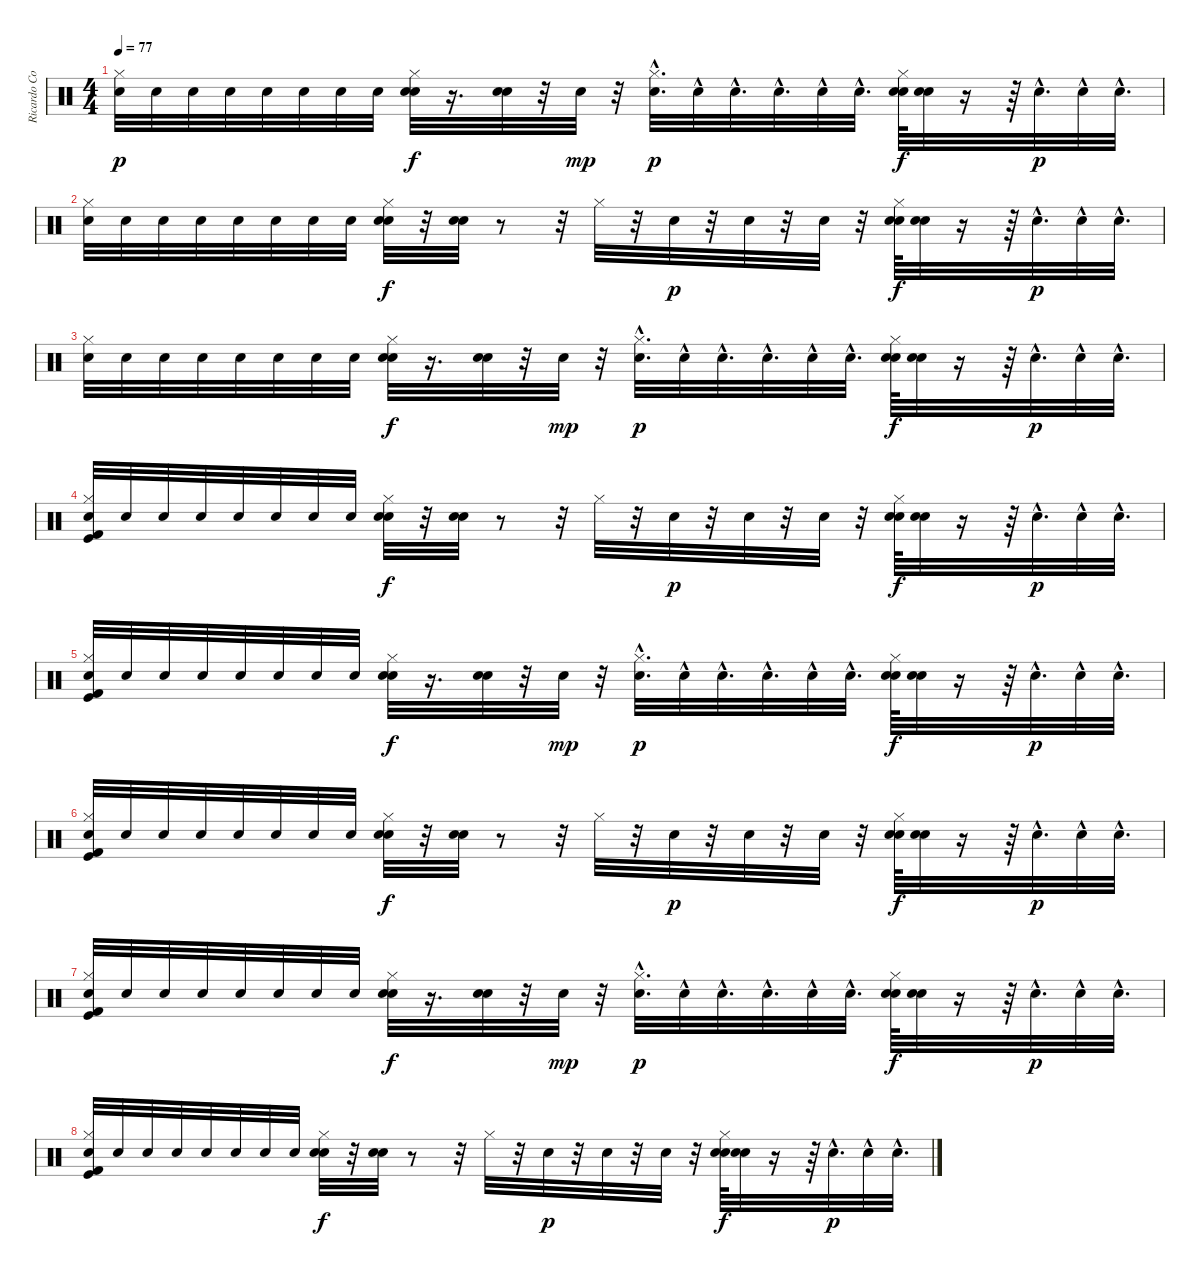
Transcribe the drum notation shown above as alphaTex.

\track ("Ricardo Confessori" "Ricardo Co") {instrument percussion}
\staff {score}
\articulation defaults
\ts (4 4)
\tempo 77
\clef neutral
\ks c
("Electric Snare (hit)" "Hi-Hat (closed)").32{dy p} "Electric Snare (hit)".32 "Electric Snare (hit)".32 "Electric Snare (hit)".32 "Electric Snare (hit)".32 "Electric Snare (hit)".32 "Electric Snare (hit)".32 "Electric Snare (hit)".32 ("Snare (hit) 2" "Electric Snare (hit)" "Hi-Hat (closed)").32{dy f} r.16{d} ("Snare (hit) 2" "Electric Snare (hit)").32 r.32 "Electric Snare (hit)".32{dy mp} r.32 ("Electric Snare (hit)"{hac} "Hi-Hat (closed)").32{d dy p} "Electric Snare (hit)"{hac}.32 "Electric Snare (hit)"{hac}.32{d} "Electric Snare (hit)"{hac}.32{d} "Electric Snare (hit)"{hac}.32 "Electric Snare (hit)"{hac}.32{d} ("Snare (hit) 2" "Electric Snare (hit)" "Hi-Hat (closed)").64{dy f} ("Snare (hit) 2" "Electric Snare (hit)").32 r.16 r.64 "Electric Snare (hit)"{hac}.32{d dy p} "Electric Snare (hit)"{hac}.32 "Electric Snare (hit)"{hac}.32{d} |
("Electric Snare (hit)" "Hi-Hat (closed)").32 "Electric Snare (hit)".32 "Electric Snare (hit)".32 "Electric Snare (hit)".32 "Electric Snare (hit)".32 "Electric Snare (hit)".32 "Electric Snare (hit)".32 "Electric Snare (hit)".32 ("Snare (hit) 2" "Electric Snare (hit)" "Hi-Hat (closed)").32{dy f} r.32 ("Snare (hit) 2" "Electric Snare (hit)").32 r.8 r.32 "Hi-Hat (closed)".32 r.32 "Electric Snare (hit)".32{dy p} r.32 "Electric Snare (hit)".32 r.32 "Electric Snare (hit)".32 r.32 ("Snare (hit) 2" "Electric Snare (hit)" "Hi-Hat (closed)").64{dy f} ("Snare (hit) 2" "Electric Snare (hit)").32 r.16 r.64 "Electric Snare (hit)"{hac}.32{d dy p} "Electric Snare (hit)"{hac}.32 "Electric Snare (hit)"{hac}.32{d} |
("Electric Snare (hit)" "Hi-Hat (closed)").32 "Electric Snare (hit)".32 "Electric Snare (hit)".32 "Electric Snare (hit)".32 "Electric Snare (hit)".32 "Electric Snare (hit)".32 "Electric Snare (hit)".32 "Electric Snare (hit)".32 ("Snare (hit) 2" "Electric Snare (hit)" "Hi-Hat (closed)").32{dy f} r.16{d} ("Snare (hit) 2" "Electric Snare (hit)").32 r.32 "Electric Snare (hit)".32{dy mp} r.32 ("Electric Snare (hit)"{hac} "Hi-Hat (closed)").32{d dy p} "Electric Snare (hit)"{hac}.32 "Electric Snare (hit)"{hac}.32{d} "Electric Snare (hit)"{hac}.32{d} "Electric Snare (hit)"{hac}.32 "Electric Snare (hit)"{hac}.32{d} ("Snare (hit) 2" "Electric Snare (hit)" "Hi-Hat (closed)").64{dy f} ("Snare (hit) 2" "Electric Snare (hit)").32 r.16 r.64 "Electric Snare (hit)"{hac}.32{d dy p} "Electric Snare (hit)"{hac}.32 "Electric Snare (hit)"{hac}.32{d} |
("Kick (hit) 2" "Kick (hit)" "Electric Snare (hit)" "Hi-Hat (closed)").32 "Electric Snare (hit)".32 "Electric Snare (hit)".32 "Electric Snare (hit)".32 "Electric Snare (hit)".32 "Electric Snare (hit)".32 "Electric Snare (hit)".32 "Electric Snare (hit)".32 ("Snare (hit) 2" "Electric Snare (hit)" "Hi-Hat (closed)").32{dy f} r.32 ("Snare (hit) 2" "Electric Snare (hit)").32 r.8 r.32 "Hi-Hat (closed)".32 r.32 "Electric Snare (hit)".32{dy p} r.32 "Electric Snare (hit)".32 r.32 "Electric Snare (hit)".32 r.32 ("Snare (hit) 2" "Electric Snare (hit)" "Hi-Hat (closed)").64{dy f} ("Snare (hit) 2" "Electric Snare (hit)").32 r.16 r.64 "Electric Snare (hit)"{hac}.32{d dy p} "Electric Snare (hit)"{hac}.32 "Electric Snare (hit)"{hac}.32{d} |
("Kick (hit) 2" "Kick (hit)" "Electric Snare (hit)" "Hi-Hat (closed)").32 "Electric Snare (hit)".32 "Electric Snare (hit)".32 "Electric Snare (hit)".32 "Electric Snare (hit)".32 "Electric Snare (hit)".32 "Electric Snare (hit)".32 "Electric Snare (hit)".32 ("Snare (hit) 2" "Electric Snare (hit)" "Hi-Hat (closed)").32{dy f} r.16{d} ("Snare (hit) 2" "Electric Snare (hit)").32 r.32 "Electric Snare (hit)".32{dy mp} r.32 ("Electric Snare (hit)"{hac} "Hi-Hat (closed)").32{d dy p} "Electric Snare (hit)"{hac}.32 "Electric Snare (hit)"{hac}.32{d} "Electric Snare (hit)"{hac}.32{d} "Electric Snare (hit)"{hac}.32 "Electric Snare (hit)"{hac}.32{d} ("Snare (hit) 2" "Electric Snare (hit)" "Hi-Hat (closed)").64{dy f} ("Snare (hit) 2" "Electric Snare (hit)").32 r.16 r.64 "Electric Snare (hit)"{hac}.32{d dy p} "Electric Snare (hit)"{hac}.32 "Electric Snare (hit)"{hac}.32{d} |
("Kick (hit) 2" "Kick (hit)" "Electric Snare (hit)" "Hi-Hat (closed)").32 "Electric Snare (hit)".32 "Electric Snare (hit)".32 "Electric Snare (hit)".32 "Electric Snare (hit)".32 "Electric Snare (hit)".32 "Electric Snare (hit)".32 "Electric Snare (hit)".32 ("Snare (hit) 2" "Electric Snare (hit)" "Hi-Hat (closed)").32{dy f} r.32 ("Snare (hit) 2" "Electric Snare (hit)").32 r.8 r.32 "Hi-Hat (closed)".32 r.32 "Electric Snare (hit)".32{dy p} r.32 "Electric Snare (hit)".32 r.32 "Electric Snare (hit)".32 r.32 ("Snare (hit) 2" "Electric Snare (hit)" "Hi-Hat (closed)").64{dy f} ("Snare (hit) 2" "Electric Snare (hit)").32 r.16 r.64 "Electric Snare (hit)"{hac}.32{d dy p} "Electric Snare (hit)"{hac}.32 "Electric Snare (hit)"{hac}.32{d} |
("Kick (hit) 2" "Kick (hit)" "Electric Snare (hit)" "Hi-Hat (closed)").32 "Electric Snare (hit)".32 "Electric Snare (hit)".32 "Electric Snare (hit)".32 "Electric Snare (hit)".32 "Electric Snare (hit)".32 "Electric Snare (hit)".32 "Electric Snare (hit)".32 ("Snare (hit) 2" "Electric Snare (hit)" "Hi-Hat (closed)").32{dy f} r.16{d} ("Snare (hit) 2" "Electric Snare (hit)").32 r.32 "Electric Snare (hit)".32{dy mp} r.32 ("Electric Snare (hit)"{hac} "Hi-Hat (closed)").32{d dy p} "Electric Snare (hit)"{hac}.32 "Electric Snare (hit)"{hac}.32{d} "Electric Snare (hit)"{hac}.32{d} "Electric Snare (hit)"{hac}.32 "Electric Snare (hit)"{hac}.32{d} ("Snare (hit) 2" "Electric Snare (hit)" "Hi-Hat (closed)").64{dy f} ("Snare (hit) 2" "Electric Snare (hit)").32 r.16 r.64 "Electric Snare (hit)"{hac}.32{d dy p} "Electric Snare (hit)"{hac}.32 "Electric Snare (hit)"{hac}.32{d} |
("Kick (hit) 2" "Kick (hit)" "Electric Snare (hit)" "Hi-Hat (closed)").32 "Electric Snare (hit)".32 "Electric Snare (hit)".32 "Electric Snare (hit)".32 "Electric Snare (hit)".32 "Electric Snare (hit)".32 "Electric Snare (hit)".32 "Electric Snare (hit)".32 ("Snare (hit) 2" "Electric Snare (hit)" "Hi-Hat (closed)").32{dy f} r.32 ("Snare (hit) 2" "Electric Snare (hit)").32 r.8 r.32 "Hi-Hat (closed)".32 r.32 "Electric Snare (hit)".32{dy p} r.32 "Electric Snare (hit)".32 r.32 "Electric Snare (hit)".32 r.32 ("Snare (hit) 2" "Electric Snare (hit)" "Hi-Hat (closed)").64{dy f} ("Snare (hit) 2" "Electric Snare (hit)").32 r.16 r.64 "Electric Snare (hit)"{hac}.32{d dy p} "Electric Snare (hit)"{hac}.32 "Electric Snare (hit)"{hac}.32{d}
